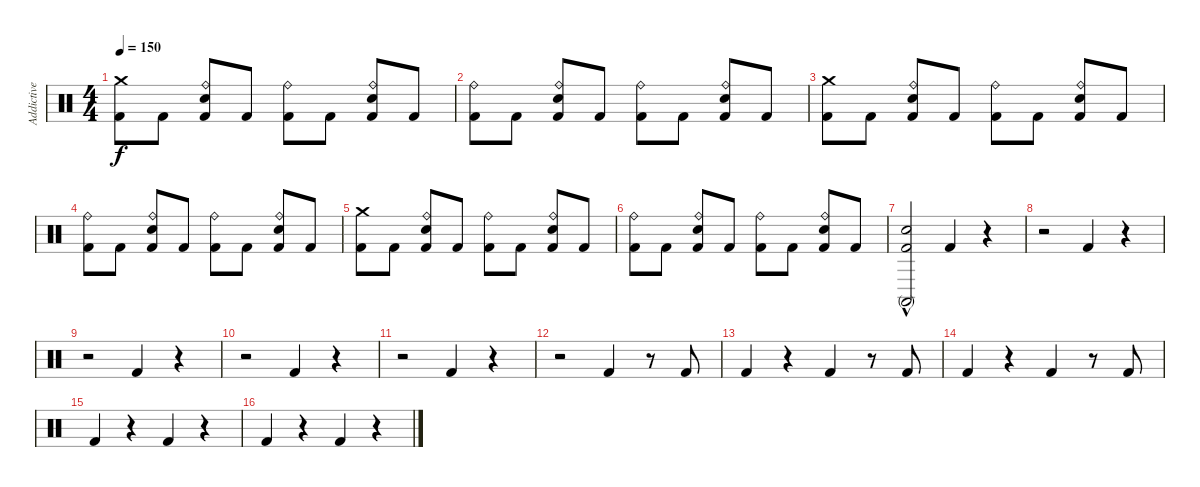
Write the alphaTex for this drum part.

\track ("Addictive Drums (MIDI)" "Addictive ") {instrument percussion}
\staff {score}
\articulation defaults
\ts (4 4)
\tempo 150
\clef neutral
\ks c
("Crash medium (hit)" "Kick (hit) 2").8{dy f} "Kick (hit) 2".8 ("Ride (bell)" "Kick (hit) 2" "Snare (hit) 2").8 "Kick (hit) 2".8 ("Kick (hit) 2" "Ride (bell)").8 "Kick (hit) 2".8 ("Ride (bell)" "Kick (hit) 2" "Snare (hit) 2").8 "Kick (hit) 2".8 |
("Kick (hit) 2" "Ride (bell)").8 "Kick (hit) 2".8 ("Snare (hit) 2" "Kick (hit) 2" "Ride (bell)").8 "Kick (hit) 2".8 ("Ride (bell)" "Kick (hit) 2").8 "Kick (hit) 2".8 ("Ride (bell)" "Kick (hit) 2" "Snare (hit) 2").8 "Kick (hit) 2".8 |
("Crash medium (hit)" "Kick (hit) 2").8 "Kick (hit) 2".8 ("Ride (bell)" "Kick (hit) 2" "Snare (hit) 2").8 "Kick (hit) 2".8 ("Ride (bell)" "Kick (hit) 2").8 "Kick (hit) 2".8 ("Ride (bell)" "Kick (hit) 2" "Snare (hit) 2").8 "Kick (hit) 2".8 |
("Ride (bell)" "Kick (hit) 2").8 "Kick (hit) 2".8 ("Snare (hit) 2" "Kick (hit) 2" "Ride (bell)").8 "Kick (hit) 2".8 ("Kick (hit) 2" "Ride (bell)").8 "Kick (hit) 2".8 ("Snare (hit) 2" "Kick (hit) 2" "Ride (bell)").8 "Kick (hit) 2".8 |
("Kick (hit) 2" "Crash medium (hit)").8 "Kick (hit) 2".8 ("Ride (bell)" "Kick (hit) 2" "Snare (hit) 2").8 "Kick (hit) 2".8 ("Kick (hit) 2" "Ride (bell)").8 "Kick (hit) 2".8 ("Snare (hit) 2" "Kick (hit) 2" "Ride (bell)").8 "Kick (hit) 2".8 |
("Kick (hit) 2" "Ride (bell)").8 "Kick (hit) 2".8 ("Ride (bell)" "Kick (hit) 2" "Snare (hit) 2").8 "Kick (hit) 2".8 ("Ride (bell)" "Kick (hit) 2").8 "Kick (hit) 2".8 ("Snare (hit) 2" "Kick (hit) 2" "Ride (bell)").8 "Kick (hit) 2".8 |
("Kick (hit) 2" "Snare (hit) 2"{hac} "Conga high (mute)").2 "Kick (hit) 2".4 r.4 |
r.2 "Kick (hit) 2".4 r.4 |
r.2 "Kick (hit) 2".4 r.4 |
r.2 "Kick (hit) 2".4 r.4 |
r.2 "Kick (hit) 2".4 r.4 |
r.2 "Kick (hit) 2".4 r.8 "Kick (hit) 2".8 |
"Kick (hit) 2".4 r.4 "Kick (hit) 2".4 r.8 "Kick (hit) 2".8 |
"Kick (hit) 2".4 r.4 "Kick (hit) 2".4 r.8 "Kick (hit) 2".8 |
"Kick (hit) 2".4 r.4 "Kick (hit) 2".4 r.4 |
"Kick (hit) 2".4 r.4 "Kick (hit) 2".4 r.4
